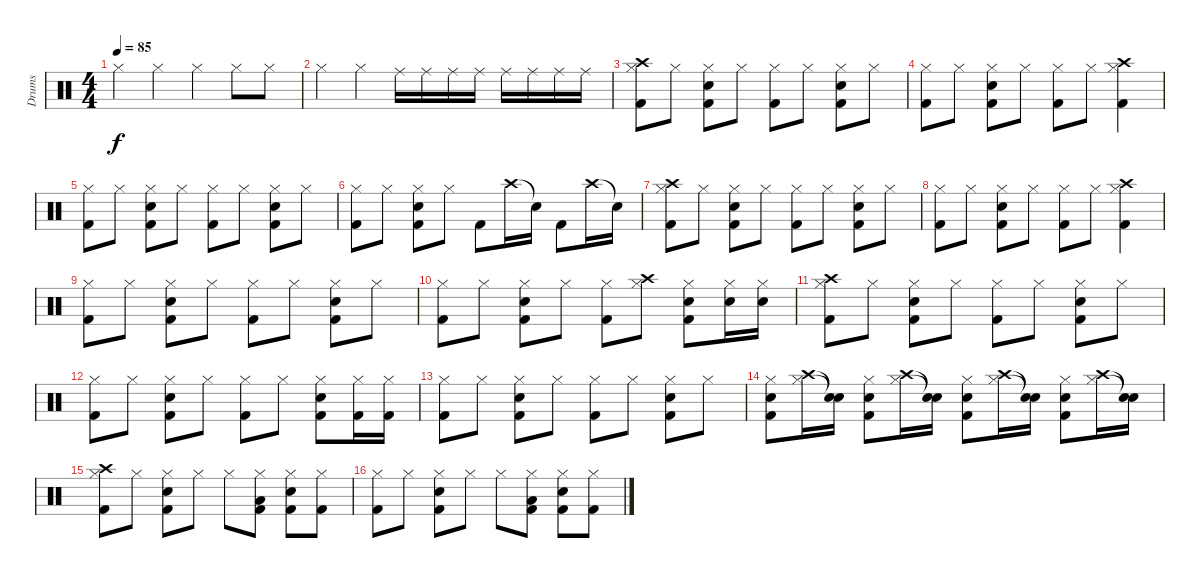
\track ("Drums" "Drums") {instrument percussion}
\staff {score}
\articulation defaults
\ts (4 4)
\tempo 85
\clef neutral
\ks c "Hi-Hat (closed)".4{dy f} "Hi-Hat (closed)".4 "Hi-Hat (closed)".4 "Hi-Hat (closed)".8 "Hi-Hat (closed)".8
|
"Hi-Hat (closed)".4 "Hi-Hat (closed)".4 "Ride (middle)".16{volume 5} "Ride (middle)".16 "Ride (middle)".16{volume 8} "Ride (middle)".16 "Ride (middle)".16{volume 10} "Ride (middle)".16 "Ride (middle)".16{volume 13} "Ride (middle)".16 |
("Crash high (hit)" "Hi-Hat (closed)" "Kick (hit) 2").8 "Hi-Hat (closed)".8 ("Hi-Hat (closed)" "Electric Snare (hit)" "Kick (hit) 2").8 "Hi-Hat (closed)".8 ("Hi-Hat (closed)" "Kick (hit) 2").8 "Hi-Hat (closed)".8 ("Hi-Hat (closed)" "Electric Snare (hit)" "Kick (hit) 2").8 "Hi-Hat (closed)".8 |
("Hi-Hat (closed)" "Kick (hit) 2").8 "Hi-Hat (closed)".8 ("Hi-Hat (closed)" "Electric Snare (hit)" "Kick (hit) 2").8 "Hi-Hat (closed)".8 ("Hi-Hat (closed)" "Kick (hit) 2").8 "Hi-Hat (closed)".8 ("Crash high (hit)" "Hi-Hat (closed)" "Kick (hit) 2").4 |
("Hi-Hat (closed)" "Kick (hit) 2").8 "Hi-Hat (closed)".8 ("Hi-Hat (closed)" "Electric Snare (hit)" "Kick (hit) 2").8 "Hi-Hat (closed)".8 ("Hi-Hat (closed)" "Kick (hit) 2").8 "Hi-Hat (closed)".8 ("Hi-Hat (closed)" "Electric Snare (hit)" "Kick (hit) 2").8 "Hi-Hat (closed)".8 |
("Hi-Hat (closed)" "Kick (hit) 2").8 "Hi-Hat (closed)".8 ("Hi-Hat (closed)" "Electric Snare (hit)" "Kick (hit) 2").8 "Hi-Hat (closed)".8 "Kick (hit) 2".8 "Crash high (hit)".16 "Snare (hit)"{t}.16 "Kick (hit) 2".8 "Crash high (hit)".16 "Snare (hit)"{t}.16 |
("Crash high (hit)" "Hi-Hat (closed)" "Kick (hit) 2").8 "Hi-Hat (closed)".8 ("Hi-Hat (closed)" "Electric Snare (hit)" "Kick (hit) 2").8 "Hi-Hat (closed)".8 ("Hi-Hat (closed)" "Kick (hit) 2").8 "Hi-Hat (closed)".8 ("Hi-Hat (closed)" "Electric Snare (hit)" "Kick (hit) 2").8 "Hi-Hat (closed)".8 |
("Hi-Hat (closed)" "Kick (hit) 2").8 "Hi-Hat (closed)".8 ("Hi-Hat (closed)" "Electric Snare (hit)" "Kick (hit) 2").8 "Hi-Hat (closed)".8 ("Hi-Hat (closed)" "Kick (hit) 2").8 "Hi-Hat (closed)".8 ("Crash high (hit)" "Hi-Hat (closed)" "Kick (hit) 2").4 |
("Hi-Hat (closed)" "Kick (hit) 2").8 "Hi-Hat (closed)".8 ("Hi-Hat (closed)" "Electric Snare (hit)" "Kick (hit) 2").8 "Hi-Hat (closed)".8 ("Hi-Hat (closed)" "Kick (hit) 2").8 "Hi-Hat (closed)".8 ("Hi-Hat (closed)" "Electric Snare (hit)" "Kick (hit) 2").8 "Hi-Hat (closed)".8 |
("Hi-Hat (closed)" "Kick (hit) 2").8 "Hi-Hat (closed)".8 ("Hi-Hat (closed)" "Electric Snare (hit)" "Kick (hit) 2").8 "Hi-Hat (closed)".8 ("Hi-Hat (closed)" "Kick (hit) 2").8 ("Crash high (hit)" "Hi-Hat (closed)").8 ("Hi-Hat (closed)" "Electric Snare (hit)" "Kick (hit) 2").8 ("Hi-Hat (closed)" "Electric Snare (hit)").16 ("Hi-Hat (closed)" "Electric Snare (hit)").16 |
("Crash high (hit)" "Hi-Hat (closed)" "Kick (hit) 2").8 "Hi-Hat (closed)".8 ("Hi-Hat (closed)" "Electric Snare (hit)" "Kick (hit) 2").8 "Hi-Hat (closed)".8 ("Hi-Hat (closed)" "Kick (hit) 2").8 "Hi-Hat (closed)".8 ("Hi-Hat (closed)" "Electric Snare (hit)" "Kick (hit) 2").8 "Hi-Hat (closed)".8 |
("Hi-Hat (closed)" "Kick (hit) 2").8 "Hi-Hat (closed)".8 ("Hi-Hat (closed)" "Electric Snare (hit)" "Kick (hit) 2").8 "Hi-Hat (closed)".8 ("Hi-Hat (closed)" "Kick (hit) 2").8 "Hi-Hat (closed)".8 ("Hi-Hat (closed)" "Electric Snare (hit)" "Kick (hit) 2").8 ("Hi-Hat (closed)" "Kick (hit) 2").16 ("Hi-Hat (closed)" "Kick (hit) 2").16 |
("Hi-Hat (closed)" "Kick (hit) 2").8 "Hi-Hat (closed)".8 ("Hi-Hat (closed)" "Electric Snare (hit)" "Kick (hit) 2").8 "Hi-Hat (closed)".8 ("Hi-Hat (closed)" "Kick (hit) 2").8 "Hi-Hat (closed)".8 ("Hi-Hat (closed)" "Electric Snare (hit)" "Kick (hit) 2").8 "Hi-Hat (closed)".8 |
("Hi-Hat (closed)" "Electric Snare (hit)" "Kick (hit) 2").8 ("Crash high (hit)" "Hi-Hat (closed)").16 ("Snare (hit)"{t} "Snare (hit)"{t}).16 ("Hi-Hat (closed)" "Electric Snare (hit)" "Kick (hit) 2").8 ("Crash high (hit)" "Hi-Hat (closed)").16 ("Snare (hit)"{t} "Snare (hit)"{t}).16 ("Hi-Hat (closed)" "Electric Snare (hit)" "Kick (hit) 2").8 ("Crash high (hit)" "Hi-Hat (closed)").16 ("Snare (hit)"{t} "Snare (hit)"{t}).16 ("Hi-Hat (closed)" "Electric Snare (hit)" "Kick (hit) 2").8 ("Crash high (hit)" "Hi-Hat (closed)").16 ("Snare (hit)"{t} "Snare (hit)"{t}).16 |
("Crash high (hit)" "Hi-Hat (closed)" "Kick (hit) 2").8 "Hi-Hat (closed)".8 ("Hi-Hat (closed)" "Electric Snare (hit)" "Kick (hit) 2").8 "Hi-Hat (closed)".8 "Hi-Hat (closed)".8 ("Hi-Hat (closed)" "Low Tom (hit)" "Kick (hit) 2").8 ("Hi-Hat (closed)" "Electric Snare (hit)" "Kick (hit) 2").8 ("Hi-Hat (closed)" "Kick (hit) 2").8 |
("Hi-Hat (closed)" "Kick (hit) 2").8 "Hi-Hat (closed)".8 ("Hi-Hat (closed)" "Electric Snare (hit)" "Kick (hit) 2").8 "Hi-Hat (closed)".8 "Hi-Hat (closed)".8 ("Hi-Hat (closed)" "Low Tom (hit)" "Kick (hit) 2").8 ("Hi-Hat (closed)" "Electric Snare (hit)" "Kick (hit) 2").8 ("Hi-Hat (closed)" "Kick (hit) 2").8
